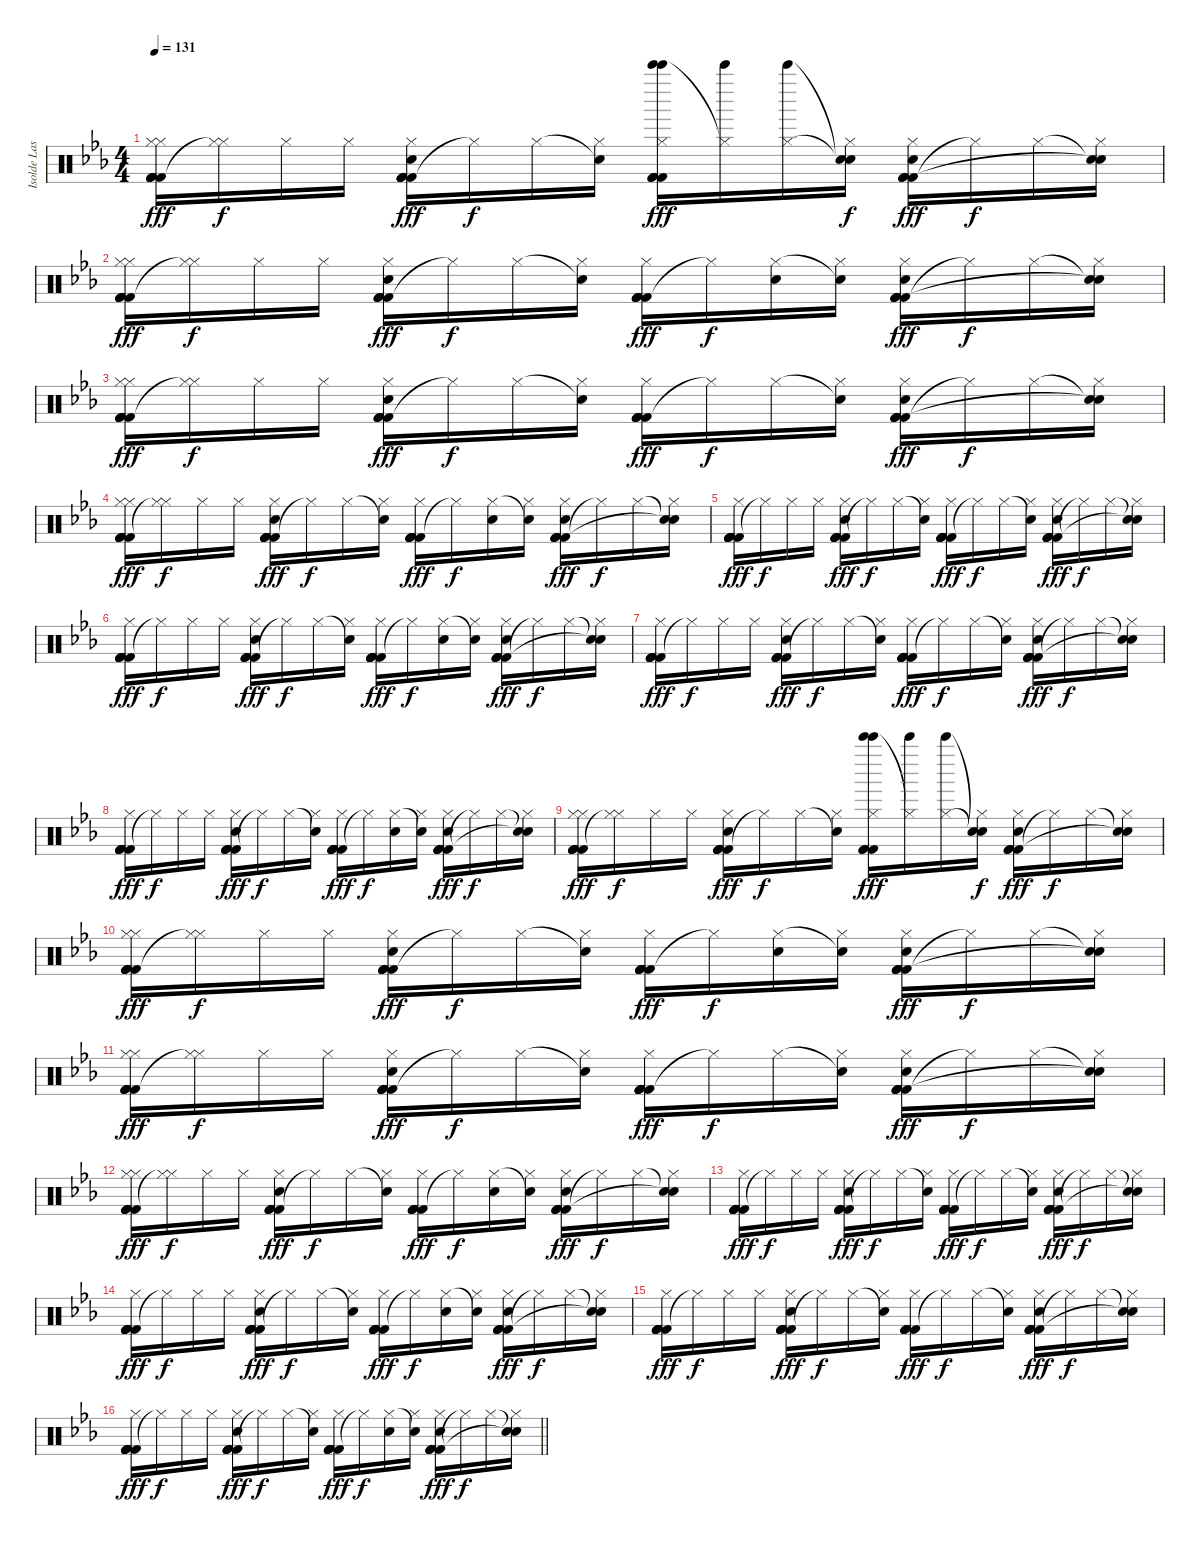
\track ("Isolde Lasoen (Percussion)" "Isolde Las") {instrument percussion}
\staff {score}
\articulation defaults
\ts (4 4)
\tempo 131
\clef neutral
\ks cminor
("Hi-Hat (closed)" "Kick (hit) 2" "Kick (hit) 2" "Kick (hit) 2" "Hi-Hat (closed)" "Kick (hit) 2").16{dy fff} ("Hi-Hat (closed)" "Hi-Hat (closed)"{t}).16{dy f} "Hi-Hat (closed)".16 "Hi-Hat (closed)".16 ("Kick (hit) 2" "Kick (hit) 2" "Kick (hit) 2" "Kick (hit) 2" "Hi-Hat (closed)" "Hand Clap (hit)").16{dy fff} "Hi-Hat (closed)"{t}.16{dy f} "Hi-Hat (closed)".16 ("Snare (hit)"{t} "Hi-Hat (closed)").16 ("Bell Tree (hit)" "Bell Tree (hit)" "Kick (hit) 2" "Kick (hit) 2" "Hi-Hat (closed)" "Kick (hit) 2").16{dy fff} ("Bell Tree (hit)" "Hi-Hat (closed)"{t}).16 ("Bell Tree (hit)" "Hi-Hat (closed)").16 ("Snare (hit)"{t} "Snare (hit)"{t} "Hi-Hat (closed)").16{dy f} ("Kick (hit) 2" "Kick (hit) 2" "Kick (hit) 2" "Hi-Hat (closed)" "Hand Clap (hit)").16{dy fff} "Hi-Hat (closed)"{t}.16{dy f} "Hi-Hat (closed)".16 ("Snare (hit)"{t} "Hi-Hat (closed)" "Snare (hit)"{t}).16 |
("Hi-Hat (closed)" "Kick (hit) 2" "Kick (hit) 2" "Kick (hit) 2" "Hi-Hat (closed)" "Kick (hit) 2").16{dy fff} ("Hi-Hat (closed)" "Hi-Hat (closed)"{t}).16{dy f} "Hi-Hat (closed)".16 "Hi-Hat (closed)".16 ("Kick (hit) 2" "Kick (hit) 2" "Kick (hit) 2" "Kick (hit) 2" "Hi-Hat (closed)" "Hand Clap (hit)").16{dy fff} "Hi-Hat (closed)"{t}.16{dy f} "Hi-Hat (closed)".16 ("Snare (hit)"{t} "Hi-Hat (closed)").16 ("Kick (hit) 2" "Kick (hit) 2" "Kick (hit) 2" "Kick (hit) 2" "Hi-Hat (closed)" "Kick (hit) 2").16{dy fff} "Hi-Hat (closed)"{t}.16{dy f} ("Hi-Hat (closed)" "Hand Clap (hit)").16 ("Snare (hit)"{t} "Hi-Hat (closed)").16 ("Kick (hit) 2" "Kick (hit) 2" "Kick (hit) 2" "Kick (hit) 2" "Hi-Hat (closed)" "Hand Clap (hit)").16{dy fff} "Hi-Hat (closed)"{t}.16{dy f} "Hi-Hat (closed)".16 ("Snare (hit)"{t} "Hi-Hat (closed)" "Snare (hit)"{t}).16 |
("Hi-Hat (closed)" "Kick (hit) 2" "Kick (hit) 2" "Kick (hit) 2" "Hi-Hat (closed)" "Kick (hit) 2").16{dy fff} ("Hi-Hat (closed)" "Hi-Hat (closed)"{t}).16{dy f} "Hi-Hat (closed)".16 "Hi-Hat (closed)".16 ("Kick (hit) 2" "Kick (hit) 2" "Kick (hit) 2" "Kick (hit) 2" "Hi-Hat (closed)" "Hand Clap (hit)").16{dy fff} "Hi-Hat (closed)"{t}.16{dy f} "Hi-Hat (closed)".16 ("Snare (hit)"{t} "Hi-Hat (closed)").16 ("Kick (hit) 2" "Kick (hit) 2" "Kick (hit) 2" "Kick (hit) 2" "Hi-Hat (closed)" "Kick (hit) 2").16{dy fff} "Hi-Hat (closed)"{t}.16{dy f} "Hi-Hat (closed)".16 ("Snare (hit)"{t} "Hi-Hat (closed)").16 ("Kick (hit) 2" "Kick (hit) 2" "Kick (hit) 2" "Kick (hit) 2" "Hi-Hat (closed)" "Hand Clap (hit)").16{dy fff} "Hi-Hat (closed)"{t}.16{dy f} "Hi-Hat (closed)".16 ("Snare (hit)"{t} "Hi-Hat (closed)" "Snare (hit)"{t}).16 |
("Hi-Hat (closed)" "Kick (hit) 2" "Kick (hit) 2" "Kick (hit) 2" "Hi-Hat (closed)" "Kick (hit) 2").16{dy fff} ("Hi-Hat (closed)" "Hi-Hat (closed)"{t}).16{dy f} "Hi-Hat (closed)".16 "Hi-Hat (closed)".16 ("Kick (hit) 2" "Kick (hit) 2" "Kick (hit) 2" "Kick (hit) 2" "Hi-Hat (closed)" "Hand Clap (hit)").16{dy fff} "Hi-Hat (closed)"{t}.16{dy f} "Hi-Hat (closed)".16 ("Snare (hit)"{t} "Hi-Hat (closed)").16 ("Kick (hit) 2" "Kick (hit) 2" "Kick (hit) 2" "Kick (hit) 2" "Hi-Hat (closed)" "Kick (hit) 2").16{dy fff} "Hi-Hat (closed)"{t}.16{dy f} ("Hi-Hat (closed)" "Hand Clap (hit)").16 ("Snare (hit)"{t} "Hi-Hat (closed)").16 ("Kick (hit) 2" "Kick (hit) 2" "Kick (hit) 2" "Kick (hit) 2" "Hi-Hat (closed)" "Hand Clap (hit)").16{dy fff} "Hi-Hat (closed)"{t}.16{dy f} "Hi-Hat (closed)".16 ("Snare (hit)"{t} "Hi-Hat (closed)" "Snare (hit)"{t}).16 |
("Kick (hit) 2" "Kick (hit) 2" "Kick (hit) 2" "Kick (hit) 2" "Hi-Hat (closed)" "Kick (hit) 2").16{dy fff} "Hi-Hat (closed)"{t}.16{dy f} "Hi-Hat (closed)".16 "Hi-Hat (closed)".16 ("Kick (hit) 2" "Kick (hit) 2" "Kick (hit) 2" "Kick (hit) 2" "Hi-Hat (closed)" "Hand Clap (hit)").16{dy fff} "Hi-Hat (closed)"{t}.16{dy f} "Hi-Hat (closed)".16 ("Snare (hit)"{t} "Hi-Hat (closed)").16 ("Kick (hit) 2" "Kick (hit) 2" "Kick (hit) 2" "Kick (hit) 2" "Hi-Hat (closed)" "Kick (hit) 2").16{dy fff} "Hi-Hat (closed)"{t}.16{dy f} "Hi-Hat (closed)".16 ("Snare (hit)"{t} "Hi-Hat (closed)").16 ("Kick (hit) 2" "Kick (hit) 2" "Kick (hit) 2" "Kick (hit) 2" "Hi-Hat (closed)" "Hand Clap (hit)").16{dy fff} "Hi-Hat (closed)"{t}.16{dy f} "Hi-Hat (closed)".16 ("Snare (hit)"{t} "Hi-Hat (closed)" "Snare (hit)"{t}).16 |
("Kick (hit) 2" "Kick (hit) 2" "Kick (hit) 2" "Kick (hit) 2" "Hi-Hat (closed)" "Kick (hit) 2").16{dy fff} "Hi-Hat (closed)"{t}.16{dy f} "Hi-Hat (closed)".16 "Hi-Hat (closed)".16 ("Kick (hit) 2" "Kick (hit) 2" "Kick (hit) 2" "Kick (hit) 2" "Hi-Hat (closed)" "Hand Clap (hit)").16{dy fff} "Hi-Hat (closed)"{t}.16{dy f} "Hi-Hat (closed)".16 ("Snare (hit)"{t} "Hi-Hat (closed)").16 ("Kick (hit) 2" "Kick (hit) 2" "Kick (hit) 2" "Kick (hit) 2" "Hi-Hat (closed)" "Kick (hit) 2").16{dy fff} "Hi-Hat (closed)"{t}.16{dy f} ("Hi-Hat (closed)" "Hand Clap (hit)").16 ("Snare (hit)"{t} "Hi-Hat (closed)").16 ("Kick (hit) 2" "Kick (hit) 2" "Kick (hit) 2" "Kick (hit) 2" "Hi-Hat (closed)" "Hand Clap (hit)").16{dy fff} "Hi-Hat (closed)"{t}.16{dy f} "Hi-Hat (closed)".16 ("Snare (hit)"{t} "Hi-Hat (closed)" "Snare (hit)"{t}).16 |
("Kick (hit) 2" "Kick (hit) 2" "Kick (hit) 2" "Kick (hit) 2" "Hi-Hat (closed)" "Kick (hit) 2").16{dy fff} "Hi-Hat (closed)"{t}.16{dy f} "Hi-Hat (closed)".16 "Hi-Hat (closed)".16 ("Kick (hit) 2" "Kick (hit) 2" "Kick (hit) 2" "Kick (hit) 2" "Hi-Hat (closed)" "Hand Clap (hit)").16{dy fff} "Hi-Hat (closed)"{t}.16{dy f} "Hi-Hat (closed)".16 ("Snare (hit)"{t} "Hi-Hat (closed)").16 ("Kick (hit) 2" "Kick (hit) 2" "Kick (hit) 2" "Kick (hit) 2" "Hi-Hat (closed)" "Kick (hit) 2").16{dy fff} "Hi-Hat (closed)"{t}.16{dy f} "Hi-Hat (closed)".16 ("Snare (hit)"{t} "Hi-Hat (closed)").16 ("Kick (hit) 2" "Kick (hit) 2" "Kick (hit) 2" "Kick (hit) 2" "Hi-Hat (closed)" "Hand Clap (hit)").16{dy fff} "Hi-Hat (closed)"{t}.16{dy f} "Hi-Hat (closed)".16 ("Snare (hit)"{t} "Hi-Hat (closed)" "Snare (hit)"{t}).16 |
("Kick (hit) 2" "Kick (hit) 2" "Kick (hit) 2" "Kick (hit) 2" "Hi-Hat (closed)" "Kick (hit) 2").16{dy fff} "Hi-Hat (closed)"{t}.16{dy f} "Hi-Hat (closed)".16 "Hi-Hat (closed)".16 ("Kick (hit) 2" "Kick (hit) 2" "Kick (hit) 2" "Kick (hit) 2" "Hi-Hat (closed)" "Hand Clap (hit)").16{dy fff} "Hi-Hat (closed)"{t}.16{dy f} "Hi-Hat (closed)".16 ("Snare (hit)"{t} "Hi-Hat (closed)").16 ("Kick (hit) 2" "Kick (hit) 2" "Kick (hit) 2" "Kick (hit) 2" "Hi-Hat (closed)" "Kick (hit) 2").16{dy fff} "Hi-Hat (closed)"{t}.16{dy f} ("Hi-Hat (closed)" "Hand Clap (hit)").16 ("Snare (hit)"{t} "Hi-Hat (closed)").16 ("Kick (hit) 2" "Kick (hit) 2" "Kick (hit) 2" "Kick (hit) 2" "Hi-Hat (closed)" "Hand Clap (hit)").16{dy fff} "Hi-Hat (closed)"{t}.16{dy f} "Hi-Hat (closed)".16 ("Snare (hit)"{t} "Hi-Hat (closed)" "Snare (hit)"{t}).16 |
("Hi-Hat (closed)" "Kick (hit) 2" "Kick (hit) 2" "Kick (hit) 2" "Hi-Hat (closed)" "Kick (hit) 2").16{dy fff} ("Hi-Hat (closed)" "Hi-Hat (closed)"{t}).16{dy f} "Hi-Hat (closed)".16 "Hi-Hat (closed)".16 ("Kick (hit) 2" "Kick (hit) 2" "Kick (hit) 2" "Kick (hit) 2" "Hi-Hat (closed)" "Hand Clap (hit)").16{dy fff} "Hi-Hat (closed)"{t}.16{dy f} "Hi-Hat (closed)".16 ("Snare (hit)"{t} "Hi-Hat (closed)").16 ("Bell Tree (hit)" "Bell Tree (hit)" "Kick (hit) 2" "Kick (hit) 2" "Hi-Hat (closed)" "Kick (hit) 2").16{dy fff} ("Bell Tree (hit)" "Hi-Hat (closed)"{t}).16 ("Bell Tree (hit)" "Hi-Hat (closed)").16 ("Snare (hit)"{t} "Snare (hit)"{t} "Hi-Hat (closed)").16{dy f} ("Kick (hit) 2" "Kick (hit) 2" "Kick (hit) 2" "Hi-Hat (closed)" "Hand Clap (hit)").16{dy fff} "Hi-Hat (closed)"{t}.16{dy f} "Hi-Hat (closed)".16 ("Snare (hit)"{t} "Hi-Hat (closed)" "Snare (hit)"{t}).16 |
("Hi-Hat (closed)" "Kick (hit) 2" "Kick (hit) 2" "Kick (hit) 2" "Hi-Hat (closed)" "Kick (hit) 2").16{dy fff} ("Hi-Hat (closed)" "Hi-Hat (closed)"{t}).16{dy f} "Hi-Hat (closed)".16 "Hi-Hat (closed)".16 ("Kick (hit) 2" "Kick (hit) 2" "Kick (hit) 2" "Kick (hit) 2" "Hi-Hat (closed)" "Hand Clap (hit)").16{dy fff} "Hi-Hat (closed)"{t}.16{dy f} "Hi-Hat (closed)".16 ("Snare (hit)"{t} "Hi-Hat (closed)").16 ("Kick (hit) 2" "Kick (hit) 2" "Kick (hit) 2" "Kick (hit) 2" "Hi-Hat (closed)" "Kick (hit) 2").16{dy fff} "Hi-Hat (closed)"{t}.16{dy f} ("Hi-Hat (closed)" "Hand Clap (hit)").16 ("Snare (hit)"{t} "Hi-Hat (closed)").16 ("Kick (hit) 2" "Kick (hit) 2" "Kick (hit) 2" "Kick (hit) 2" "Hi-Hat (closed)" "Hand Clap (hit)").16{dy fff} "Hi-Hat (closed)"{t}.16{dy f} "Hi-Hat (closed)".16 ("Snare (hit)"{t} "Hi-Hat (closed)" "Snare (hit)"{t}).16 |
("Hi-Hat (closed)" "Kick (hit) 2" "Kick (hit) 2" "Kick (hit) 2" "Hi-Hat (closed)" "Kick (hit) 2").16{dy fff} ("Hi-Hat (closed)" "Hi-Hat (closed)"{t}).16{dy f} "Hi-Hat (closed)".16 "Hi-Hat (closed)".16 ("Kick (hit) 2" "Kick (hit) 2" "Kick (hit) 2" "Kick (hit) 2" "Hi-Hat (closed)" "Hand Clap (hit)").16{dy fff} "Hi-Hat (closed)"{t}.16{dy f} "Hi-Hat (closed)".16 ("Snare (hit)"{t} "Hi-Hat (closed)").16 ("Kick (hit) 2" "Kick (hit) 2" "Kick (hit) 2" "Kick (hit) 2" "Hi-Hat (closed)" "Kick (hit) 2").16{dy fff} "Hi-Hat (closed)"{t}.16{dy f} "Hi-Hat (closed)".16 ("Snare (hit)"{t} "Hi-Hat (closed)").16 ("Kick (hit) 2" "Kick (hit) 2" "Kick (hit) 2" "Kick (hit) 2" "Hi-Hat (closed)" "Hand Clap (hit)").16{dy fff} "Hi-Hat (closed)"{t}.16{dy f} "Hi-Hat (closed)".16 ("Snare (hit)"{t} "Hi-Hat (closed)" "Snare (hit)"{t}).16 |
("Hi-Hat (closed)" "Kick (hit) 2" "Kick (hit) 2" "Kick (hit) 2" "Hi-Hat (closed)" "Kick (hit) 2").16{dy fff} ("Hi-Hat (closed)" "Hi-Hat (closed)"{t}).16{dy f} "Hi-Hat (closed)".16 "Hi-Hat (closed)".16 ("Kick (hit) 2" "Kick (hit) 2" "Kick (hit) 2" "Kick (hit) 2" "Hi-Hat (closed)" "Hand Clap (hit)").16{dy fff} "Hi-Hat (closed)"{t}.16{dy f} "Hi-Hat (closed)".16 ("Snare (hit)"{t} "Hi-Hat (closed)").16 ("Kick (hit) 2" "Kick (hit) 2" "Kick (hit) 2" "Kick (hit) 2" "Hi-Hat (closed)" "Kick (hit) 2").16{dy fff} "Hi-Hat (closed)"{t}.16{dy f} ("Hi-Hat (closed)" "Hand Clap (hit)").16 ("Snare (hit)"{t} "Hi-Hat (closed)").16 ("Kick (hit) 2" "Kick (hit) 2" "Kick (hit) 2" "Kick (hit) 2" "Hi-Hat (closed)" "Hand Clap (hit)").16{dy fff} "Hi-Hat (closed)"{t}.16{dy f} "Hi-Hat (closed)".16 ("Snare (hit)"{t} "Hi-Hat (closed)" "Snare (hit)"{t}).16 |
("Kick (hit) 2" "Kick (hit) 2" "Kick (hit) 2" "Kick (hit) 2" "Hi-Hat (closed)" "Kick (hit) 2").16{dy fff} "Hi-Hat (closed)"{t}.16{dy f} "Hi-Hat (closed)".16 "Hi-Hat (closed)".16 ("Kick (hit) 2" "Kick (hit) 2" "Kick (hit) 2" "Kick (hit) 2" "Hi-Hat (closed)" "Hand Clap (hit)").16{dy fff} "Hi-Hat (closed)"{t}.16{dy f} "Hi-Hat (closed)".16 ("Snare (hit)"{t} "Hi-Hat (closed)").16 ("Kick (hit) 2" "Kick (hit) 2" "Kick (hit) 2" "Kick (hit) 2" "Hi-Hat (closed)" "Kick (hit) 2").16{dy fff} "Hi-Hat (closed)"{t}.16{dy f} "Hi-Hat (closed)".16 ("Snare (hit)"{t} "Hi-Hat (closed)").16 ("Kick (hit) 2" "Kick (hit) 2" "Kick (hit) 2" "Kick (hit) 2" "Hi-Hat (closed)" "Hand Clap (hit)").16{dy fff} "Hi-Hat (closed)"{t}.16{dy f} "Hi-Hat (closed)".16 ("Snare (hit)"{t} "Hi-Hat (closed)" "Snare (hit)"{t}).16 |
("Kick (hit) 2" "Kick (hit) 2" "Kick (hit) 2" "Kick (hit) 2" "Hi-Hat (closed)" "Kick (hit) 2").16{dy fff} "Hi-Hat (closed)"{t}.16{dy f} "Hi-Hat (closed)".16 "Hi-Hat (closed)".16 ("Kick (hit) 2" "Kick (hit) 2" "Kick (hit) 2" "Kick (hit) 2" "Hi-Hat (closed)" "Hand Clap (hit)").16{dy fff} "Hi-Hat (closed)"{t}.16{dy f} "Hi-Hat (closed)".16 ("Snare (hit)"{t} "Hi-Hat (closed)").16 ("Kick (hit) 2" "Kick (hit) 2" "Kick (hit) 2" "Kick (hit) 2" "Hi-Hat (closed)" "Kick (hit) 2").16{dy fff} "Hi-Hat (closed)"{t}.16{dy f} ("Hi-Hat (closed)" "Hand Clap (hit)").16 ("Snare (hit)"{t} "Hi-Hat (closed)").16 ("Kick (hit) 2" "Kick (hit) 2" "Kick (hit) 2" "Kick (hit) 2" "Hi-Hat (closed)" "Hand Clap (hit)").16{dy fff} "Hi-Hat (closed)"{t}.16{dy f} "Hi-Hat (closed)".16 ("Snare (hit)"{t} "Hi-Hat (closed)" "Snare (hit)"{t}).16 |
("Kick (hit) 2" "Kick (hit) 2" "Kick (hit) 2" "Kick (hit) 2" "Hi-Hat (closed)" "Kick (hit) 2").16{dy fff} "Hi-Hat (closed)"{t}.16{dy f} "Hi-Hat (closed)".16 "Hi-Hat (closed)".16 ("Kick (hit) 2" "Kick (hit) 2" "Kick (hit) 2" "Kick (hit) 2" "Hi-Hat (closed)" "Hand Clap (hit)").16{dy fff} "Hi-Hat (closed)"{t}.16{dy f} "Hi-Hat (closed)".16 ("Snare (hit)"{t} "Hi-Hat (closed)").16 ("Kick (hit) 2" "Kick (hit) 2" "Kick (hit) 2" "Kick (hit) 2" "Hi-Hat (closed)" "Kick (hit) 2").16{dy fff} "Hi-Hat (closed)"{t}.16{dy f} "Hi-Hat (closed)".16 ("Snare (hit)"{t} "Hi-Hat (closed)").16 ("Kick (hit) 2" "Kick (hit) 2" "Kick (hit) 2" "Kick (hit) 2" "Hi-Hat (closed)" "Hand Clap (hit)").16{dy fff} "Hi-Hat (closed)"{t}.16{dy f} "Hi-Hat (closed)".16 ("Snare (hit)"{t} "Hi-Hat (closed)" "Snare (hit)"{t}).16 |
\barLineRight lightlight
("Kick (hit) 2" "Kick (hit) 2" "Kick (hit) 2" "Kick (hit) 2" "Hi-Hat (closed)" "Kick (hit) 2").16{dy fff} "Hi-Hat (closed)"{t}.16{dy f} "Hi-Hat (closed)".16 "Hi-Hat (closed)".16 ("Kick (hit) 2" "Kick (hit) 2" "Kick (hit) 2" "Kick (hit) 2" "Hi-Hat (closed)" "Hand Clap (hit)").16{dy fff} "Hi-Hat (closed)"{t}.16{dy f} "Hi-Hat (closed)".16 ("Snare (hit)"{t} "Hi-Hat (closed)").16 ("Kick (hit) 2" "Kick (hit) 2" "Kick (hit) 2" "Kick (hit) 2" "Hi-Hat (closed)" "Kick (hit) 2").16{dy fff} "Hi-Hat (closed)"{t}.16{dy f} ("Hi-Hat (closed)" "Hand Clap (hit)").16 ("Snare (hit)"{t} "Hi-Hat (closed)").16 ("Kick (hit) 2" "Kick (hit) 2" "Kick (hit) 2" "Kick (hit) 2" "Hi-Hat (closed)" "Hand Clap (hit)").16{dy fff} "Hi-Hat (closed)"{t}.16{dy f} "Hi-Hat (closed)".16 ("Snare (hit)"{t} "Hi-Hat (closed)" "Snare (hit)"{t}).16
